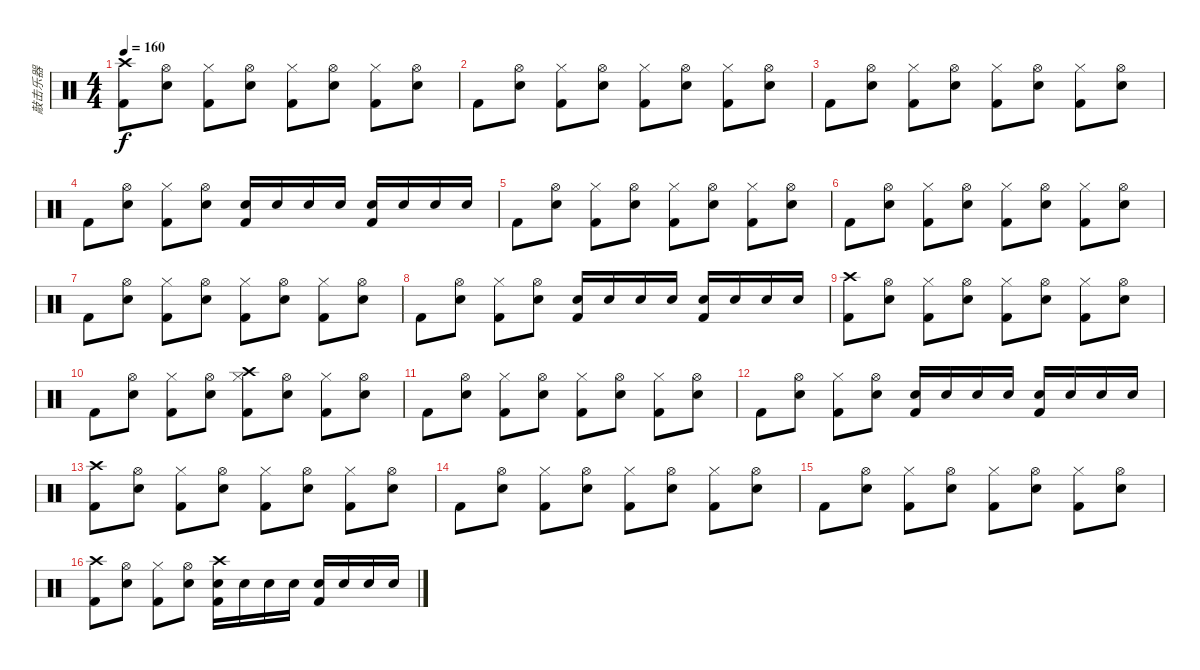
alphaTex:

\track ("敲击乐器" "敲击乐器") {instrument percussion}
\staff {score}
\articulation defaults
\ts (4 4)
\tempo 160
\clef neutral
\ks c
("Crash high (hit)" "Kick (hit) 2").8{dy f} ("Hi-Hat (open)" "Electric Snare (hit)").8 ("Hi-Hat (closed)" "Kick (hit) 2").8 ("Hi-Hat (open)" "Electric Snare (hit)").8 ("Hi-Hat (closed)" "Kick (hit) 2").8 ("Hi-Hat (open)" "Electric Snare (hit)").8 ("Hi-Hat (closed)" "Kick (hit) 2").8 ("Hi-Hat (open)" "Electric Snare (hit)").8 |
"Kick (hit) 2".8 ("Hi-Hat (open)" "Electric Snare (hit)").8 ("Hi-Hat (closed)" "Kick (hit) 2").8 ("Hi-Hat (open)" "Electric Snare (hit)").8 ("Hi-Hat (closed)" "Kick (hit) 2").8 ("Hi-Hat (open)" "Electric Snare (hit)").8 ("Hi-Hat (closed)" "Kick (hit) 2").8 ("Hi-Hat (open)" "Electric Snare (hit)").8 |
"Kick (hit) 2".8 ("Hi-Hat (open)" "Electric Snare (hit)").8 ("Hi-Hat (closed)" "Kick (hit) 2").8 ("Hi-Hat (open)" "Electric Snare (hit)").8 ("Hi-Hat (closed)" "Kick (hit) 2").8 ("Hi-Hat (open)" "Electric Snare (hit)").8 ("Hi-Hat (closed)" "Kick (hit) 2").8 ("Hi-Hat (open)" "Electric Snare (hit)").8 |
"Kick (hit) 2".8 ("Hi-Hat (open)" "Electric Snare (hit)").8 ("Hi-Hat (closed)" "Kick (hit) 2").8 ("Hi-Hat (open)" "Electric Snare (hit)").8 ("Electric Snare (hit)" "Kick (hit) 2").16 "Electric Snare (hit)".16 "Electric Snare (hit)".16 "Electric Snare (hit)".16 ("Electric Snare (hit)" "Kick (hit) 2").16 "Electric Snare (hit)".16 "Electric Snare (hit)".16 "Electric Snare (hit)".16 |
"Kick (hit) 2".8 ("Hi-Hat (open)" "Electric Snare (hit)").8 ("Hi-Hat (closed)" "Kick (hit) 2").8 ("Hi-Hat (open)" "Electric Snare (hit)").8 ("Hi-Hat (closed)" "Kick (hit) 2").8 ("Hi-Hat (open)" "Electric Snare (hit)").8 ("Hi-Hat (closed)" "Kick (hit) 2").8 ("Hi-Hat (open)" "Electric Snare (hit)").8 |
"Kick (hit) 2".8 ("Hi-Hat (open)" "Electric Snare (hit)").8 ("Hi-Hat (closed)" "Kick (hit) 2").8 ("Hi-Hat (open)" "Electric Snare (hit)").8 ("Hi-Hat (closed)" "Kick (hit) 2").8 ("Hi-Hat (open)" "Electric Snare (hit)").8 ("Hi-Hat (closed)" "Kick (hit) 2").8 ("Hi-Hat (open)" "Electric Snare (hit)").8 |
"Kick (hit) 2".8 ("Hi-Hat (open)" "Electric Snare (hit)").8 ("Hi-Hat (closed)" "Kick (hit) 2").8 ("Hi-Hat (open)" "Electric Snare (hit)").8 ("Hi-Hat (closed)" "Kick (hit) 2").8 ("Hi-Hat (open)" "Electric Snare (hit)").8 ("Hi-Hat (closed)" "Kick (hit) 2").8 ("Hi-Hat (open)" "Electric Snare (hit)").8 |
"Kick (hit) 2".8 ("Hi-Hat (open)" "Electric Snare (hit)").8 ("Hi-Hat (closed)" "Kick (hit) 2").8 ("Hi-Hat (open)" "Electric Snare (hit)").8 ("Electric Snare (hit)" "Kick (hit) 2").16 "Electric Snare (hit)".16 "Electric Snare (hit)".16 "Electric Snare (hit)".16 ("Electric Snare (hit)" "Kick (hit) 2").16 "Electric Snare (hit)".16 "Electric Snare (hit)".16 "Electric Snare (hit)".16 |
("Crash high (hit)" "Kick (hit) 2").8 ("Hi-Hat (open)" "Electric Snare (hit)").8 ("Hi-Hat (closed)" "Kick (hit) 2").8 ("Hi-Hat (open)" "Electric Snare (hit)").8 ("Hi-Hat (closed)" "Kick (hit) 2").8 ("Hi-Hat (open)" "Electric Snare (hit)").8 ("Hi-Hat (closed)" "Kick (hit) 2").8 ("Hi-Hat (open)" "Electric Snare (hit)").8 |
"Kick (hit) 2".8 ("Hi-Hat (open)" "Electric Snare (hit)").8 ("Hi-Hat (closed)" "Kick (hit) 2").8 ("Hi-Hat (open)" "Electric Snare (hit)").8 ("Hi-Hat (closed)" "Crash high (hit)" "Kick (hit) 2").8 ("Hi-Hat (open)" "Electric Snare (hit)").8 ("Hi-Hat (closed)" "Kick (hit) 2").8 ("Hi-Hat (open)" "Electric Snare (hit)").8 |
"Kick (hit) 2".8 ("Hi-Hat (open)" "Electric Snare (hit)").8 ("Hi-Hat (closed)" "Kick (hit) 2").8 ("Hi-Hat (open)" "Electric Snare (hit)").8 ("Hi-Hat (closed)" "Kick (hit) 2").8 ("Hi-Hat (open)" "Electric Snare (hit)").8 ("Hi-Hat (closed)" "Kick (hit) 2").8 ("Hi-Hat (open)" "Electric Snare (hit)").8 |
"Kick (hit) 2".8 ("Hi-Hat (open)" "Electric Snare (hit)").8 ("Hi-Hat (closed)" "Kick (hit) 2").8 ("Hi-Hat (open)" "Electric Snare (hit)").8 ("Electric Snare (hit)" "Kick (hit) 2").16 "Electric Snare (hit)".16 "Electric Snare (hit)".16 "Electric Snare (hit)".16 ("Electric Snare (hit)" "Kick (hit) 2").16 "Electric Snare (hit)".16 "Electric Snare (hit)".16 "Electric Snare (hit)".16 |
("Crash high (hit)" "Kick (hit) 2").8 ("Hi-Hat (open)" "Electric Snare (hit)").8 ("Hi-Hat (closed)" "Kick (hit) 2").8 ("Hi-Hat (open)" "Electric Snare (hit)").8 ("Hi-Hat (closed)" "Kick (hit) 2").8 ("Hi-Hat (open)" "Electric Snare (hit)").8 ("Hi-Hat (closed)" "Kick (hit) 2").8 ("Hi-Hat (open)" "Electric Snare (hit)").8 |
"Kick (hit) 2".8 ("Hi-Hat (open)" "Electric Snare (hit)").8 ("Hi-Hat (closed)" "Kick (hit) 2").8 ("Hi-Hat (open)" "Electric Snare (hit)").8 ("Hi-Hat (closed)" "Kick (hit) 2").8 ("Hi-Hat (open)" "Electric Snare (hit)").8 ("Hi-Hat (closed)" "Kick (hit) 2").8 ("Hi-Hat (open)" "Electric Snare (hit)").8 |
"Kick (hit) 2".8 ("Hi-Hat (open)" "Electric Snare (hit)").8 ("Hi-Hat (closed)" "Kick (hit) 2").8 ("Hi-Hat (open)" "Electric Snare (hit)").8 ("Hi-Hat (closed)" "Kick (hit) 2").8 ("Hi-Hat (open)" "Electric Snare (hit)").8 ("Hi-Hat (closed)" "Kick (hit) 2").8 ("Hi-Hat (open)" "Electric Snare (hit)").8 |
("Crash high (hit)" "Kick (hit) 2").8 ("Hi-Hat (open)" "Electric Snare (hit)").8 ("Hi-Hat (closed)" "Kick (hit) 2").8 ("Hi-Hat (open)" "Electric Snare (hit)").8 ("Crash high (hit)" "Electric Snare (hit)" "Kick (hit) 2").16 "Electric Snare (hit)".16 "Electric Snare (hit)".16 "Electric Snare (hit)".16 ("Electric Snare (hit)" "Kick (hit) 2").16 "Electric Snare (hit)".16 "Electric Snare (hit)".16 "Electric Snare (hit)".16
